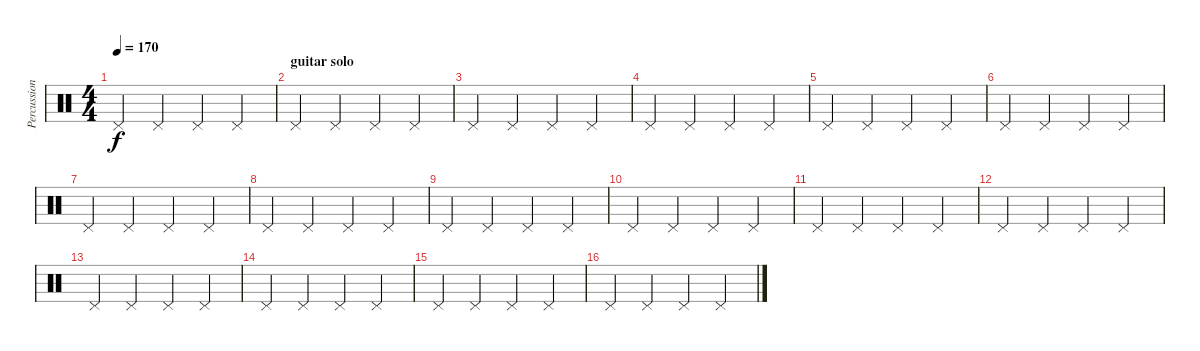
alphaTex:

\track ("Percussion" "Percussion") {instrument percussion}
\staff {score}
\articulation defaults
\ts (4 4)
\tempo 170
\clef neutral
\ks c "Pedal Hi-Hat (hit)".4{dy f} "Pedal Hi-Hat (hit)".4 "Pedal Hi-Hat (hit)".4 "Pedal Hi-Hat (hit)".4
|
\section ("" "guitar solo")
"Pedal Hi-Hat (hit)".4 "Pedal Hi-Hat (hit)".4 "Pedal Hi-Hat (hit)".4 "Pedal Hi-Hat (hit)".4 |
"Pedal Hi-Hat (hit)".4 "Pedal Hi-Hat (hit)".4 "Pedal Hi-Hat (hit)".4 "Pedal Hi-Hat (hit)".4 |
"Pedal Hi-Hat (hit)".4 "Pedal Hi-Hat (hit)".4 "Pedal Hi-Hat (hit)".4 "Pedal Hi-Hat (hit)".4 |
"Pedal Hi-Hat (hit)".4 "Pedal Hi-Hat (hit)".4 "Pedal Hi-Hat (hit)".4 "Pedal Hi-Hat (hit)".4 |
"Pedal Hi-Hat (hit)".4 "Pedal Hi-Hat (hit)".4 "Pedal Hi-Hat (hit)".4 "Pedal Hi-Hat (hit)".4 |
"Pedal Hi-Hat (hit)".4 "Pedal Hi-Hat (hit)".4 "Pedal Hi-Hat (hit)".4 "Pedal Hi-Hat (hit)".4 |
"Pedal Hi-Hat (hit)".4 "Pedal Hi-Hat (hit)".4 "Pedal Hi-Hat (hit)".4 "Pedal Hi-Hat (hit)".4 |
"Pedal Hi-Hat (hit)".4 "Pedal Hi-Hat (hit)".4 "Pedal Hi-Hat (hit)".4 "Pedal Hi-Hat (hit)".4 |
"Pedal Hi-Hat (hit)".4 "Pedal Hi-Hat (hit)".4 "Pedal Hi-Hat (hit)".4 "Pedal Hi-Hat (hit)".4 |
"Pedal Hi-Hat (hit)".4 "Pedal Hi-Hat (hit)".4 "Pedal Hi-Hat (hit)".4 "Pedal Hi-Hat (hit)".4 |
"Pedal Hi-Hat (hit)".4 "Pedal Hi-Hat (hit)".4 "Pedal Hi-Hat (hit)".4 "Pedal Hi-Hat (hit)".4 |
"Pedal Hi-Hat (hit)".4 "Pedal Hi-Hat (hit)".4 "Pedal Hi-Hat (hit)".4 "Pedal Hi-Hat (hit)".4 |
"Pedal Hi-Hat (hit)".4 "Pedal Hi-Hat (hit)".4 "Pedal Hi-Hat (hit)".4 "Pedal Hi-Hat (hit)".4 |
"Pedal Hi-Hat (hit)".4 "Pedal Hi-Hat (hit)".4 "Pedal Hi-Hat (hit)".4 "Pedal Hi-Hat (hit)".4 |
"Pedal Hi-Hat (hit)".4 "Pedal Hi-Hat (hit)".4 "Pedal Hi-Hat (hit)".4 "Pedal Hi-Hat (hit)".4
